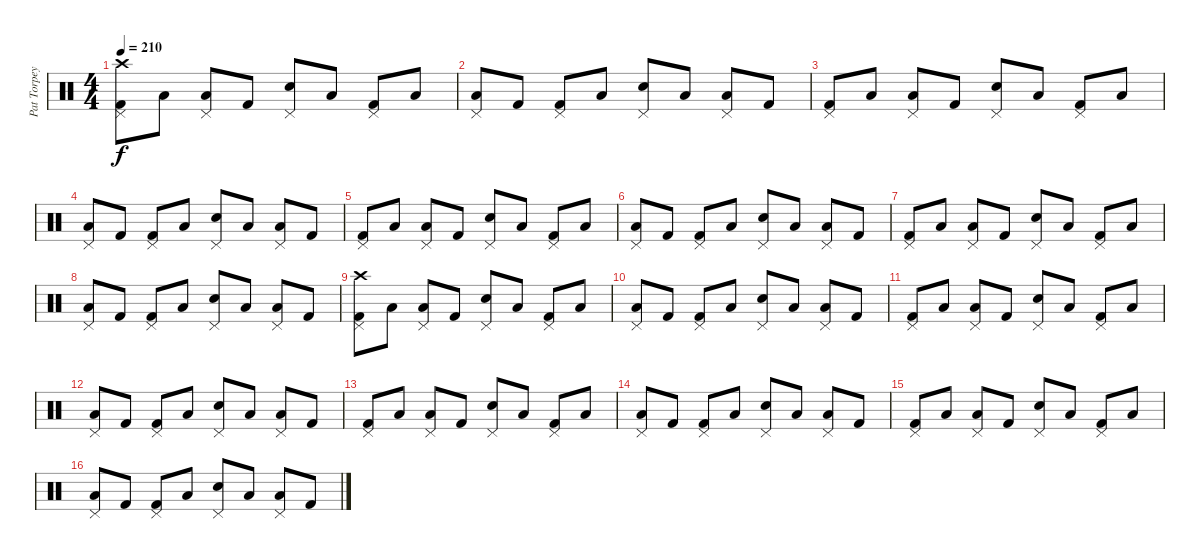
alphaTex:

\track ("Pat Torpey" "Pat Torpey") {instrument percussion}
\staff {score}
\articulation defaults
\ts (4 4)
\tempo 210
\clef neutral
\ks c
("Crash high (hit)" "Pedal Hi-Hat (hit)" "Kick (hit) 2").8{dy f} "Low Floor Tom (hit)".8 ("Pedal Hi-Hat (hit)" "Low Floor Tom (hit)").8 "Kick (hit) 2".8 ("Pedal Hi-Hat (hit)" "Snare (hit) 2").8 "Low Floor Tom (hit)".8 ("Pedal Hi-Hat (hit)" "Kick (hit) 2").8 "Low Floor Tom (hit)".8 |
("Pedal Hi-Hat (hit)" "Low Floor Tom (hit)").8 "Kick (hit) 2".8 ("Pedal Hi-Hat (hit)" "Kick (hit) 2").8 "Low Floor Tom (hit)".8 ("Pedal Hi-Hat (hit)" "Snare (hit) 2").8 "Low Floor Tom (hit)".8 ("Pedal Hi-Hat (hit)" "Low Floor Tom (hit)").8 "Kick (hit) 2".8 |
("Pedal Hi-Hat (hit)" "Kick (hit) 2").8 "Low Floor Tom (hit)".8 ("Pedal Hi-Hat (hit)" "Low Floor Tom (hit)").8 "Kick (hit) 2".8 ("Pedal Hi-Hat (hit)" "Snare (hit) 2").8 "Low Floor Tom (hit)".8 ("Pedal Hi-Hat (hit)" "Kick (hit) 2").8 "Low Floor Tom (hit)".8 |
("Pedal Hi-Hat (hit)" "Low Floor Tom (hit)").8 "Kick (hit) 2".8 ("Pedal Hi-Hat (hit)" "Kick (hit) 2").8 "Low Floor Tom (hit)".8 ("Pedal Hi-Hat (hit)" "Snare (hit) 2").8 "Low Floor Tom (hit)".8 ("Pedal Hi-Hat (hit)" "Low Floor Tom (hit)").8 "Kick (hit) 2".8 |
("Pedal Hi-Hat (hit)" "Kick (hit) 2").8 "Low Floor Tom (hit)".8 ("Pedal Hi-Hat (hit)" "Low Floor Tom (hit)").8 "Kick (hit) 2".8 ("Pedal Hi-Hat (hit)" "Snare (hit) 2").8 "Low Floor Tom (hit)".8 ("Pedal Hi-Hat (hit)" "Kick (hit) 2").8 "Low Floor Tom (hit)".8 |
("Pedal Hi-Hat (hit)" "Low Floor Tom (hit)").8 "Kick (hit) 2".8 ("Pedal Hi-Hat (hit)" "Kick (hit) 2").8 "Low Floor Tom (hit)".8 ("Pedal Hi-Hat (hit)" "Snare (hit) 2").8 "Low Floor Tom (hit)".8 ("Pedal Hi-Hat (hit)" "Low Floor Tom (hit)").8 "Kick (hit) 2".8 |
("Pedal Hi-Hat (hit)" "Kick (hit) 2").8 "Low Floor Tom (hit)".8 ("Pedal Hi-Hat (hit)" "Low Floor Tom (hit)").8 "Kick (hit) 2".8 ("Pedal Hi-Hat (hit)" "Snare (hit) 2").8 "Low Floor Tom (hit)".8 ("Pedal Hi-Hat (hit)" "Kick (hit) 2").8 "Low Floor Tom (hit)".8 |
("Pedal Hi-Hat (hit)" "Low Floor Tom (hit)").8 "Kick (hit) 2".8 ("Pedal Hi-Hat (hit)" "Kick (hit) 2").8 "Low Floor Tom (hit)".8 ("Pedal Hi-Hat (hit)" "Snare (hit) 2").8 "Low Floor Tom (hit)".8 ("Pedal Hi-Hat (hit)" "Low Floor Tom (hit)").8 "Kick (hit) 2".8 |
("Crash high (hit)" "Pedal Hi-Hat (hit)" "Kick (hit) 2").8 "Low Floor Tom (hit)".8 ("Pedal Hi-Hat (hit)" "Low Floor Tom (hit)").8 "Kick (hit) 2".8 ("Pedal Hi-Hat (hit)" "Snare (hit) 2").8 "Low Floor Tom (hit)".8 ("Pedal Hi-Hat (hit)" "Kick (hit) 2").8 "Low Floor Tom (hit)".8 |
("Pedal Hi-Hat (hit)" "Low Floor Tom (hit)").8 "Kick (hit) 2".8 ("Pedal Hi-Hat (hit)" "Kick (hit) 2").8 "Low Floor Tom (hit)".8 ("Pedal Hi-Hat (hit)" "Snare (hit) 2").8 "Low Floor Tom (hit)".8 ("Pedal Hi-Hat (hit)" "Low Floor Tom (hit)").8 "Kick (hit) 2".8 |
("Pedal Hi-Hat (hit)" "Kick (hit) 2").8 "Low Floor Tom (hit)".8 ("Pedal Hi-Hat (hit)" "Low Floor Tom (hit)").8 "Kick (hit) 2".8 ("Pedal Hi-Hat (hit)" "Snare (hit) 2").8 "Low Floor Tom (hit)".8 ("Pedal Hi-Hat (hit)" "Kick (hit) 2").8 "Low Floor Tom (hit)".8 |
("Pedal Hi-Hat (hit)" "Low Floor Tom (hit)").8 "Kick (hit) 2".8 ("Pedal Hi-Hat (hit)" "Kick (hit) 2").8 "Low Floor Tom (hit)".8 ("Pedal Hi-Hat (hit)" "Snare (hit) 2").8 "Low Floor Tom (hit)".8 ("Pedal Hi-Hat (hit)" "Low Floor Tom (hit)").8 "Kick (hit) 2".8 |
("Pedal Hi-Hat (hit)" "Kick (hit) 2").8 "Low Floor Tom (hit)".8 ("Pedal Hi-Hat (hit)" "Low Floor Tom (hit)").8 "Kick (hit) 2".8 ("Pedal Hi-Hat (hit)" "Snare (hit) 2").8 "Low Floor Tom (hit)".8 ("Pedal Hi-Hat (hit)" "Kick (hit) 2").8 "Low Floor Tom (hit)".8 |
("Pedal Hi-Hat (hit)" "Low Floor Tom (hit)").8 "Kick (hit) 2".8 ("Pedal Hi-Hat (hit)" "Kick (hit) 2").8 "Low Floor Tom (hit)".8 ("Pedal Hi-Hat (hit)" "Snare (hit) 2").8 "Low Floor Tom (hit)".8 ("Pedal Hi-Hat (hit)" "Low Floor Tom (hit)").8 "Kick (hit) 2".8 |
("Pedal Hi-Hat (hit)" "Kick (hit) 2").8 "Low Floor Tom (hit)".8 ("Pedal Hi-Hat (hit)" "Low Floor Tom (hit)").8 "Kick (hit) 2".8 ("Pedal Hi-Hat (hit)" "Snare (hit) 2").8 "Low Floor Tom (hit)".8 ("Pedal Hi-Hat (hit)" "Kick (hit) 2").8 "Low Floor Tom (hit)".8 |
("Pedal Hi-Hat (hit)" "Low Floor Tom (hit)").8 "Kick (hit) 2".8 ("Pedal Hi-Hat (hit)" "Kick (hit) 2").8 "Low Floor Tom (hit)".8 ("Pedal Hi-Hat (hit)" "Snare (hit) 2").8 "Low Floor Tom (hit)".8 ("Pedal Hi-Hat (hit)" "Low Floor Tom (hit)").8 "Kick (hit) 2".8
